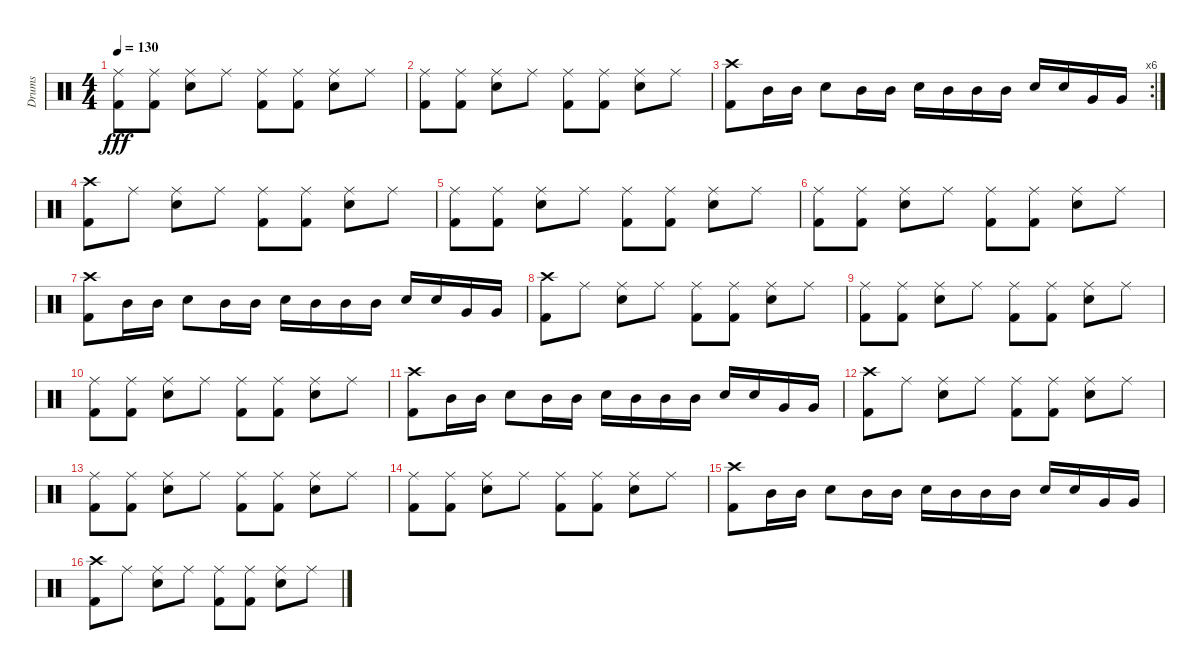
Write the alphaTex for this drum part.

\track ("Drums" "Drums") {instrument percussion}
\staff {score}
\articulation defaults
\ts (4 4)
\tempo 130
\clef neutral
\ks c
("Ride (middle)" "Kick (hit) 2").8{dy fff} ("Ride (middle)" "Kick (hit) 2").8 ("Ride (middle)" "Snare (hit) 2").8 "Ride (middle)".8 ("Ride (middle)" "Kick (hit) 2").8 ("Ride (middle)" "Kick (hit) 2").8 ("Ride (middle)" "Snare (hit) 2").8 "Ride (middle)".8 |
("Ride (middle)" "Kick (hit) 2").8 ("Ride (middle)" "Kick (hit) 2").8 ("Ride (middle)" "Snare (hit) 2").8 "Ride (middle)".8 ("Ride (middle)" "Kick (hit) 2").8 ("Ride (middle)" "Kick (hit) 2").8 ("Ride (middle)" "Snare (hit) 2").8 "Ride (middle)".8 |
\rc 6
("Crash high (hit)" "Kick (hit) 2").8 "Mid Tom (hit)".16 "Mid Tom (hit)".16 "Snare (hit) 2".8 "Mid Tom (hit)".16 "Mid Tom (hit)".16 "Snare (hit) 2".16 "Mid Tom (hit)".16 "Mid Tom (hit)".16 "Mid Tom (hit)".16 "Snare (hit) 2".16 "Snare (hit) 2".16 "Very Low Tom (hit)".16 "Very Low Tom (hit)".16 |
("Crash high (hit)" "Kick (hit) 2").8 "Ride (middle)".8 ("Ride (middle)" "Snare (hit) 2").8 "Ride (middle)".8 ("Ride (middle)" "Kick (hit) 2").8 ("Ride (middle)" "Kick (hit) 2").8 ("Ride (middle)" "Snare (hit) 2").8 "Ride (middle)".8 |
("Ride (middle)" "Kick (hit) 2").8 ("Ride (middle)" "Kick (hit) 2").8 ("Ride (middle)" "Snare (hit) 2").8 "Ride (middle)".8 ("Ride (middle)" "Kick (hit) 2").8 ("Ride (middle)" "Kick (hit) 2").8 ("Ride (middle)" "Snare (hit) 2").8 "Ride (middle)".8 |
("Ride (middle)" "Kick (hit) 2").8 ("Ride (middle)" "Kick (hit) 2").8 ("Ride (middle)" "Snare (hit) 2").8 "Ride (middle)".8 ("Ride (middle)" "Kick (hit) 2").8 ("Ride (middle)" "Kick (hit) 2").8 ("Ride (middle)" "Snare (hit) 2").8 "Ride (middle)".8 |
("Crash high (hit)" "Kick (hit) 2").8 "Mid Tom (hit)".16 "Mid Tom (hit)".16 "Snare (hit) 2".8 "Mid Tom (hit)".16 "Mid Tom (hit)".16 "Snare (hit) 2".16 "Mid Tom (hit)".16 "Mid Tom (hit)".16 "Mid Tom (hit)".16 "Snare (hit) 2".16 "Snare (hit) 2".16 "Very Low Tom (hit)".16 "Very Low Tom (hit)".16 |
("Crash high (hit)" "Kick (hit) 2").8 "Ride (middle)".8 ("Ride (middle)" "Snare (hit) 2").8 "Ride (middle)".8 ("Ride (middle)" "Kick (hit) 2").8 ("Ride (middle)" "Kick (hit) 2").8 ("Ride (middle)" "Snare (hit) 2").8 "Ride (middle)".8 |
("Ride (middle)" "Kick (hit) 2").8 ("Ride (middle)" "Kick (hit) 2").8 ("Ride (middle)" "Snare (hit) 2").8 "Ride (middle)".8 ("Ride (middle)" "Kick (hit) 2").8 ("Ride (middle)" "Kick (hit) 2").8 ("Ride (middle)" "Snare (hit) 2").8 "Ride (middle)".8 |
("Ride (middle)" "Kick (hit) 2").8 ("Ride (middle)" "Kick (hit) 2").8 ("Ride (middle)" "Snare (hit) 2").8 "Ride (middle)".8 ("Ride (middle)" "Kick (hit) 2").8 ("Ride (middle)" "Kick (hit) 2").8 ("Ride (middle)" "Snare (hit) 2").8 "Ride (middle)".8 |
("Crash high (hit)" "Kick (hit) 2").8 "Mid Tom (hit)".16 "Mid Tom (hit)".16 "Snare (hit) 2".8 "Mid Tom (hit)".16 "Mid Tom (hit)".16 "Snare (hit) 2".16 "Mid Tom (hit)".16 "Mid Tom (hit)".16 "Mid Tom (hit)".16 "Snare (hit) 2".16 "Snare (hit) 2".16 "Very Low Tom (hit)".16 "Very Low Tom (hit)".16 |
("Crash high (hit)" "Kick (hit) 2").8 "Ride (middle)".8 ("Ride (middle)" "Snare (hit) 2").8 "Ride (middle)".8 ("Ride (middle)" "Kick (hit) 2").8 ("Ride (middle)" "Kick (hit) 2").8 ("Ride (middle)" "Snare (hit) 2").8 "Ride (middle)".8 |
("Ride (middle)" "Kick (hit) 2").8 ("Ride (middle)" "Kick (hit) 2").8 ("Ride (middle)" "Snare (hit) 2").8 "Ride (middle)".8 ("Ride (middle)" "Kick (hit) 2").8 ("Ride (middle)" "Kick (hit) 2").8 ("Ride (middle)" "Snare (hit) 2").8 "Ride (middle)".8 |
("Ride (middle)" "Kick (hit) 2").8 ("Ride (middle)" "Kick (hit) 2").8 ("Ride (middle)" "Snare (hit) 2").8 "Ride (middle)".8 ("Ride (middle)" "Kick (hit) 2").8 ("Ride (middle)" "Kick (hit) 2").8 ("Ride (middle)" "Snare (hit) 2").8 "Ride (middle)".8 |
("Crash high (hit)" "Kick (hit) 2").8 "Mid Tom (hit)".16 "Mid Tom (hit)".16 "Snare (hit) 2".8 "Mid Tom (hit)".16 "Mid Tom (hit)".16 "Snare (hit) 2".16 "Mid Tom (hit)".16 "Mid Tom (hit)".16 "Mid Tom (hit)".16 "Snare (hit) 2".16 "Snare (hit) 2".16 "Very Low Tom (hit)".16 "Very Low Tom (hit)".16 |
("Crash high (hit)" "Kick (hit) 2").8 "Ride (middle)".8 ("Ride (middle)" "Snare (hit) 2").8 "Ride (middle)".8 ("Ride (middle)" "Kick (hit) 2").8 ("Ride (middle)" "Kick (hit) 2").8 ("Ride (middle)" "Snare (hit) 2").8 "Ride (middle)".8
